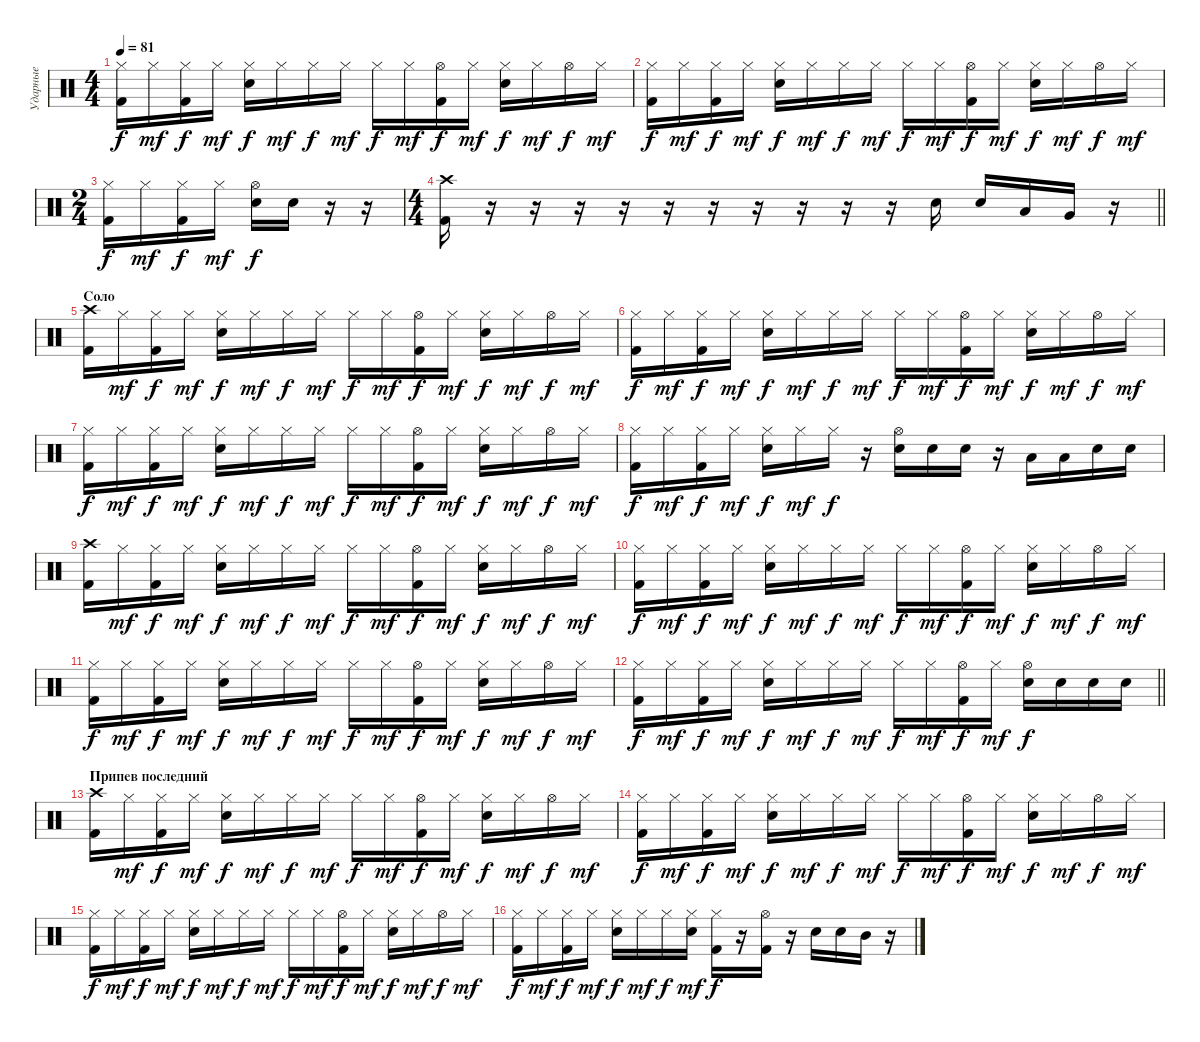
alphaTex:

\track ("Ударные" "Ударные") {instrument percussion}
\staff {score}
\articulation defaults
\ts (4 4)
\tempo 81
\clef neutral
\ks c
("Hi-Hat (closed)" "Kick (hit) 2").16{dy f} "Hi-Hat (closed)".16{dy mf} ("Hi-Hat (closed)" "Kick (hit) 2").16{dy f} "Hi-Hat (closed)".16{dy mf} ("Hi-Hat (closed)" "Electric Snare (hit)").16{dy f} "Hi-Hat (closed)".16{dy mf} "Hi-Hat (closed)".16{dy f} "Hi-Hat (closed)".16{dy mf} "Hi-Hat (closed)".16{dy f} "Hi-Hat (closed)".16{dy mf} ("Hi-Hat (open)" "Kick (hit) 2").16{dy f} "Hi-Hat (closed)".16{dy mf} ("Hi-Hat (closed)" "Electric Snare (hit)").16{dy f} "Hi-Hat (closed)".16{dy mf} "Hi-Hat (open)".16{dy f} "Hi-Hat (closed)".16{dy mf} |
("Hi-Hat (closed)" "Kick (hit) 2").16{dy f} "Hi-Hat (closed)".16{dy mf} ("Hi-Hat (closed)" "Kick (hit) 2").16{dy f} "Hi-Hat (closed)".16{dy mf} ("Hi-Hat (closed)" "Electric Snare (hit)").16{dy f} "Hi-Hat (closed)".16{dy mf} "Hi-Hat (closed)".16{dy f} "Hi-Hat (closed)".16{dy mf} "Hi-Hat (closed)".16{dy f} "Hi-Hat (closed)".16{dy mf} ("Hi-Hat (open)" "Kick (hit) 2").16{dy f} "Hi-Hat (closed)".16{dy mf} ("Hi-Hat (closed)" "Electric Snare (hit)").16{dy f} "Hi-Hat (closed)".16{dy mf} "Hi-Hat (open)".16{dy f} "Hi-Hat (closed)".16{dy mf} |
\ts (2 4)
("Hi-Hat (closed)" "Kick (hit) 2").16{dy f} "Hi-Hat (closed)".16{dy mf} ("Hi-Hat (closed)" "Kick (hit) 2").16{dy f} "Hi-Hat (closed)".16{dy mf} ("Hi-Hat (open)" "Electric Snare (hit)").16{dy f} "Electric Snare (hit)".16 r.16 r.16 |
\ts (4 4)
\barLineRight lightlight
("Crash high (hit)" "Kick (hit) 2").16 r.16 r.16 r.16 r.16 r.16 r.16 r.16 r.16 r.16 r.16 "Electric Snare (hit)".16 "Electric Snare (hit)".16 "Low Tom (hit)".16 "Very Low Tom (hit)".16 r.16 |
\section ("" "Соло")
("Crash high (hit)" "Kick (hit) 2").16 "Hi-Hat (closed)".16{dy mf} ("Hi-Hat (closed)" "Kick (hit) 2").16{dy f} "Hi-Hat (closed)".16{dy mf} ("Hi-Hat (closed)" "Electric Snare (hit)").16{dy f} "Hi-Hat (closed)".16{dy mf} "Hi-Hat (closed)".16{dy f} "Hi-Hat (closed)".16{dy mf} "Hi-Hat (closed)".16{dy f} "Hi-Hat (closed)".16{dy mf} ("Hi-Hat (open)" "Kick (hit) 2").16{dy f} "Hi-Hat (closed)".16{dy mf} ("Hi-Hat (closed)" "Electric Snare (hit)").16{dy f} "Hi-Hat (closed)".16{dy mf} "Hi-Hat (open)".16{dy f} "Hi-Hat (closed)".16{dy mf} |
("Hi-Hat (closed)" "Kick (hit) 2").16{dy f} "Hi-Hat (closed)".16{dy mf} ("Hi-Hat (closed)" "Kick (hit) 2").16{dy f} "Hi-Hat (closed)".16{dy mf} ("Hi-Hat (closed)" "Electric Snare (hit)").16{dy f} "Hi-Hat (closed)".16{dy mf} "Hi-Hat (closed)".16{dy f} "Hi-Hat (closed)".16{dy mf} "Hi-Hat (closed)".16{dy f} "Hi-Hat (closed)".16{dy mf} ("Hi-Hat (open)" "Kick (hit) 2").16{dy f} "Hi-Hat (closed)".16{dy mf} ("Hi-Hat (closed)" "Electric Snare (hit)").16{dy f} "Hi-Hat (closed)".16{dy mf} "Hi-Hat (open)".16{dy f} "Hi-Hat (closed)".16{dy mf} |
("Hi-Hat (closed)" "Kick (hit) 2").16{dy f} "Hi-Hat (closed)".16{dy mf} ("Hi-Hat (closed)" "Kick (hit) 2").16{dy f} "Hi-Hat (closed)".16{dy mf} ("Hi-Hat (closed)" "Electric Snare (hit)").16{dy f} "Hi-Hat (closed)".16{dy mf} "Hi-Hat (closed)".16{dy f} "Hi-Hat (closed)".16{dy mf} "Hi-Hat (closed)".16{dy f} "Hi-Hat (closed)".16{dy mf} ("Hi-Hat (open)" "Kick (hit) 2").16{dy f} "Hi-Hat (closed)".16{dy mf} ("Hi-Hat (closed)" "Electric Snare (hit)").16{dy f} "Hi-Hat (closed)".16{dy mf} "Hi-Hat (open)".16{dy f} "Hi-Hat (closed)".16{dy mf} |
("Hi-Hat (closed)" "Kick (hit) 2").16{dy f} "Hi-Hat (closed)".16{dy mf} ("Hi-Hat (closed)" "Kick (hit) 2").16{dy f} "Hi-Hat (closed)".16{dy mf} ("Hi-Hat (closed)" "Electric Snare (hit)").16{dy f} "Hi-Hat (closed)".16{dy mf} "Hi-Hat (closed)".16{dy f} r.16 ("Hi-Hat (open)" "Electric Snare (hit)").16 "Electric Snare (hit)".16 "Electric Snare (hit)".16 r.16 "Low Tom (hit)".16 "Low Tom (hit)".16 "Electric Snare (hit)".16 "Electric Snare (hit)".16 |
("Crash high (hit)" "Kick (hit) 2").16 "Hi-Hat (closed)".16{dy mf} ("Hi-Hat (closed)" "Kick (hit) 2").16{dy f} "Hi-Hat (closed)".16{dy mf} ("Hi-Hat (closed)" "Electric Snare (hit)").16{dy f} "Hi-Hat (closed)".16{dy mf} "Hi-Hat (closed)".16{dy f} "Hi-Hat (closed)".16{dy mf} "Hi-Hat (closed)".16{dy f} "Hi-Hat (closed)".16{dy mf} ("Hi-Hat (open)" "Kick (hit) 2").16{dy f} "Hi-Hat (closed)".16{dy mf} ("Hi-Hat (closed)" "Electric Snare (hit)").16{dy f} "Hi-Hat (closed)".16{dy mf} "Hi-Hat (open)".16{dy f} "Hi-Hat (closed)".16{dy mf} |
("Hi-Hat (closed)" "Kick (hit) 2").16{dy f} "Hi-Hat (closed)".16{dy mf} ("Hi-Hat (closed)" "Kick (hit) 2").16{dy f} "Hi-Hat (closed)".16{dy mf} ("Hi-Hat (closed)" "Electric Snare (hit)").16{dy f} "Hi-Hat (closed)".16{dy mf} "Hi-Hat (closed)".16{dy f} "Hi-Hat (closed)".16{dy mf} "Hi-Hat (closed)".16{dy f} "Hi-Hat (closed)".16{dy mf} ("Hi-Hat (open)" "Kick (hit) 2").16{dy f} "Hi-Hat (closed)".16{dy mf} ("Hi-Hat (closed)" "Electric Snare (hit)").16{dy f} "Hi-Hat (closed)".16{dy mf} "Hi-Hat (open)".16{dy f} "Hi-Hat (closed)".16{dy mf} |
("Hi-Hat (closed)" "Kick (hit) 2").16{dy f} "Hi-Hat (closed)".16{dy mf} ("Hi-Hat (closed)" "Kick (hit) 2").16{dy f} "Hi-Hat (closed)".16{dy mf} ("Hi-Hat (closed)" "Electric Snare (hit)").16{dy f} "Hi-Hat (closed)".16{dy mf} "Hi-Hat (closed)".16{dy f} "Hi-Hat (closed)".16{dy mf} "Hi-Hat (closed)".16{dy f} "Hi-Hat (closed)".16{dy mf} ("Hi-Hat (open)" "Kick (hit) 2").16{dy f} "Hi-Hat (closed)".16{dy mf} ("Hi-Hat (closed)" "Electric Snare (hit)").16{dy f} "Hi-Hat (closed)".16{dy mf} "Hi-Hat (open)".16{dy f} "Hi-Hat (closed)".16{dy mf} |
\barLineRight lightlight
("Hi-Hat (closed)" "Kick (hit) 2").16{dy f} "Hi-Hat (closed)".16{dy mf} ("Hi-Hat (closed)" "Kick (hit) 2").16{dy f} "Hi-Hat (closed)".16{dy mf} ("Hi-Hat (closed)" "Electric Snare (hit)").16{dy f} "Hi-Hat (closed)".16{dy mf} "Hi-Hat (closed)".16{dy f} "Hi-Hat (closed)".16{dy mf} "Hi-Hat (closed)".16{dy f} "Hi-Hat (closed)".16{dy mf} ("Hi-Hat (open)" "Kick (hit) 2").16{dy f} "Hi-Hat (closed)".16{dy mf} ("Hi-Hat (open)" "Electric Snare (hit)").16{dy f} "Electric Snare (hit)".16 "Electric Snare (hit)".16 "Electric Snare (hit)".16 |
\section ("" "Припев последний")
("Crash high (hit)" "Kick (hit) 2").16 "Hi-Hat (closed)".16{dy mf} ("Hi-Hat (closed)" "Kick (hit) 2").16{dy f} "Hi-Hat (closed)".16{dy mf} ("Hi-Hat (closed)" "Electric Snare (hit)").16{dy f} "Hi-Hat (closed)".16{dy mf} "Hi-Hat (closed)".16{dy f} "Hi-Hat (closed)".16{dy mf} "Hi-Hat (closed)".16{dy f} "Hi-Hat (closed)".16{dy mf} ("Hi-Hat (open)" "Kick (hit) 2").16{dy f} "Hi-Hat (closed)".16{dy mf} ("Hi-Hat (closed)" "Electric Snare (hit)").16{dy f} "Hi-Hat (closed)".16{dy mf} "Hi-Hat (open)".16{dy f} "Hi-Hat (closed)".16{dy mf} |
("Hi-Hat (closed)" "Kick (hit) 2").16{dy f} "Hi-Hat (closed)".16{dy mf} ("Hi-Hat (closed)" "Kick (hit) 2").16{dy f} "Hi-Hat (closed)".16{dy mf} ("Hi-Hat (closed)" "Electric Snare (hit)").16{dy f} "Hi-Hat (closed)".16{dy mf} "Hi-Hat (closed)".16{dy f} "Hi-Hat (closed)".16{dy mf} "Hi-Hat (closed)".16{dy f} "Hi-Hat (closed)".16{dy mf} ("Hi-Hat (open)" "Kick (hit) 2").16{dy f} "Hi-Hat (closed)".16{dy mf} ("Hi-Hat (closed)" "Electric Snare (hit)").16{dy f} "Hi-Hat (closed)".16{dy mf} "Hi-Hat (open)".16{dy f} "Hi-Hat (closed)".16{dy mf} |
("Hi-Hat (closed)" "Kick (hit) 2").16{dy f} "Hi-Hat (closed)".16{dy mf} ("Hi-Hat (closed)" "Kick (hit) 2").16{dy f} "Hi-Hat (closed)".16{dy mf} ("Hi-Hat (closed)" "Electric Snare (hit)").16{dy f} "Hi-Hat (closed)".16{dy mf} "Hi-Hat (closed)".16{dy f} "Hi-Hat (closed)".16{dy mf} "Hi-Hat (closed)".16{dy f} "Hi-Hat (closed)".16{dy mf} ("Hi-Hat (open)" "Kick (hit) 2").16{dy f} "Hi-Hat (closed)".16{dy mf} ("Hi-Hat (closed)" "Electric Snare (hit)").16{dy f} "Hi-Hat (closed)".16{dy mf} "Hi-Hat (open)".16{dy f} "Hi-Hat (closed)".16{dy mf} |
("Hi-Hat (closed)" "Kick (hit) 2").16{dy f} "Hi-Hat (closed)".16{dy mf} ("Hi-Hat (closed)" "Kick (hit) 2").16{dy f} "Hi-Hat (closed)".16{dy mf} ("Hi-Hat (closed)" "Electric Snare (hit)").16{dy f} "Hi-Hat (closed)".16{dy mf} "Hi-Hat (closed)".16{dy f} ("Hi-Hat (closed)" "Electric Snare (hit)").16{dy mf} ("Hi-Hat (closed)" "Kick (hit) 2").16{dy f} r.16 ("Hi-Hat (open)" "Kick (hit) 2").16 r.16 "Electric Snare (hit)".16 "Electric Snare (hit)".16 "Mid Tom (hit)".16 r.16
